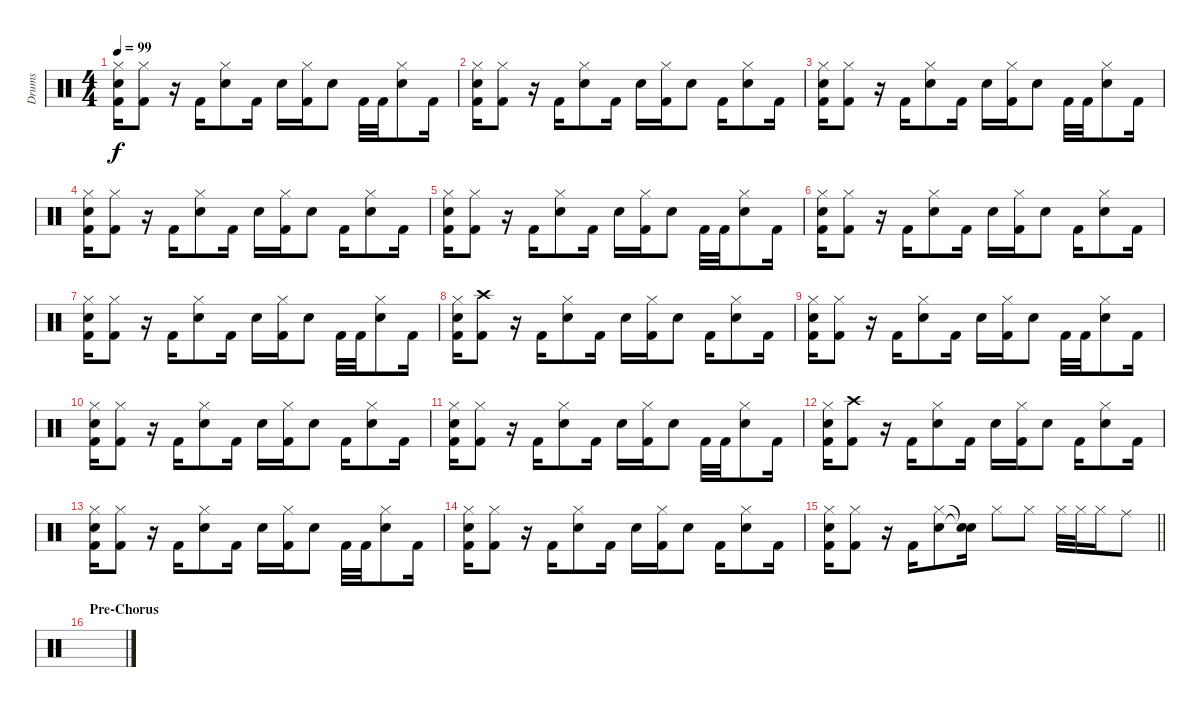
\track ("Drums" "Drums") {instrument percussion}
\staff {score}
\articulation defaults
\ts (4 4)
\tempo 99
\clef neutral
\ks c
("Hi-Hat (closed)" "Snare (hit) 2" "Kick (hit) 2").16{dy f} ("Hi-Hat (closed)" "Kick (hit) 2").8 r.16 "Kick (hit) 2".16 ("Hi-Hat (closed)" "Snare (hit) 2").8 "Kick (hit) 2".16 "Snare (hit) 2".16 ("Hi-Hat (closed)" "Kick (hit) 2").16 "Snare (hit) 2".8 "Kick (hit) 2".32 "Kick (hit) 2".32 ("Hi-Hat (closed)" "Snare (hit) 2").8 "Kick (hit) 2".16 |
("Hi-Hat (closed)" "Snare (hit) 2" "Kick (hit) 2").16 ("Hi-Hat (closed)" "Kick (hit) 2").8 r.16 "Kick (hit) 2".16 ("Hi-Hat (closed)" "Snare (hit) 2").8 "Kick (hit) 2".16 "Snare (hit) 2".16 ("Hi-Hat (closed)" "Kick (hit) 2").16 "Snare (hit) 2".8 "Kick (hit) 2".16 ("Hi-Hat (closed)" "Snare (hit) 2").8 "Kick (hit) 2".16 |
("Hi-Hat (closed)" "Snare (hit) 2" "Kick (hit) 2").16 ("Hi-Hat (closed)" "Kick (hit) 2").8 r.16 "Kick (hit) 2".16 ("Hi-Hat (closed)" "Snare (hit) 2").8 "Kick (hit) 2".16 "Snare (hit) 2".16 ("Hi-Hat (closed)" "Kick (hit) 2").16 "Snare (hit) 2".8 "Kick (hit) 2".32 "Kick (hit) 2".32 ("Hi-Hat (closed)" "Snare (hit) 2").8 "Kick (hit) 2".16 |
("Hi-Hat (closed)" "Snare (hit) 2" "Kick (hit) 2").16 ("Hi-Hat (closed)" "Kick (hit) 2").8 r.16 "Kick (hit) 2".16 ("Hi-Hat (closed)" "Snare (hit) 2").8 "Kick (hit) 2".16 "Snare (hit) 2".16 ("Hi-Hat (closed)" "Kick (hit) 2").16 "Snare (hit) 2".8 "Kick (hit) 2".16 ("Hi-Hat (closed)" "Snare (hit) 2").8 "Kick (hit) 2".16 |
("Hi-Hat (closed)" "Snare (hit) 2" "Kick (hit) 2").16 ("Hi-Hat (closed)" "Kick (hit) 2").8 r.16 "Kick (hit) 2".16 ("Hi-Hat (closed)" "Snare (hit) 2").8 "Kick (hit) 2".16 "Snare (hit) 2".16 ("Hi-Hat (closed)" "Kick (hit) 2").16 "Snare (hit) 2".8 "Kick (hit) 2".32 "Kick (hit) 2".32 ("Hi-Hat (closed)" "Snare (hit) 2").8 "Kick (hit) 2".16 |
("Hi-Hat (closed)" "Snare (hit) 2" "Kick (hit) 2").16 ("Hi-Hat (closed)" "Kick (hit) 2").8 r.16 "Kick (hit) 2".16 ("Hi-Hat (closed)" "Snare (hit) 2").8 "Kick (hit) 2".16 "Snare (hit) 2".16 ("Hi-Hat (closed)" "Kick (hit) 2").16 "Snare (hit) 2".8 "Kick (hit) 2".16 ("Hi-Hat (closed)" "Snare (hit) 2").8 "Kick (hit) 2".16 |
("Hi-Hat (closed)" "Snare (hit) 2" "Kick (hit) 2").16 ("Hi-Hat (closed)" "Kick (hit) 2").8 r.16 "Kick (hit) 2".16 ("Hi-Hat (closed)" "Snare (hit) 2").8 "Kick (hit) 2".16 "Snare (hit) 2".16 ("Hi-Hat (closed)" "Kick (hit) 2").16 "Snare (hit) 2".8 "Kick (hit) 2".32 "Kick (hit) 2".32 ("Hi-Hat (closed)" "Snare (hit) 2").8 "Kick (hit) 2".16 |
("Hi-Hat (closed)" "Snare (hit) 2" "Kick (hit) 2").16 ("Crash high (hit)" "Kick (hit) 2").8 r.16 "Kick (hit) 2".16 ("Hi-Hat (closed)" "Snare (hit) 2").8 "Kick (hit) 2".16 "Snare (hit) 2".16 ("Hi-Hat (closed)" "Kick (hit) 2").16 "Snare (hit) 2".8 "Kick (hit) 2".16 ("Hi-Hat (closed)" "Snare (hit) 2").8 "Kick (hit) 2".16 |
("Hi-Hat (closed)" "Snare (hit) 2" "Kick (hit) 2").16 ("Hi-Hat (closed)" "Kick (hit) 2").8 r.16 "Kick (hit) 2".16 ("Hi-Hat (closed)" "Snare (hit) 2").8 "Kick (hit) 2".16 "Snare (hit) 2".16 ("Hi-Hat (closed)" "Kick (hit) 2").16 "Snare (hit) 2".8 "Kick (hit) 2".32 "Kick (hit) 2".32 ("Hi-Hat (closed)" "Snare (hit) 2").8 "Kick (hit) 2".16 |
("Hi-Hat (closed)" "Snare (hit) 2" "Kick (hit) 2").16 ("Hi-Hat (closed)" "Kick (hit) 2").8 r.16 "Kick (hit) 2".16 ("Hi-Hat (closed)" "Snare (hit) 2").8 "Kick (hit) 2".16 "Snare (hit) 2".16 ("Hi-Hat (closed)" "Kick (hit) 2").16 "Snare (hit) 2".8 "Kick (hit) 2".16 ("Hi-Hat (closed)" "Snare (hit) 2").8 "Kick (hit) 2".16 |
("Hi-Hat (closed)" "Snare (hit) 2" "Kick (hit) 2").16 ("Hi-Hat (closed)" "Kick (hit) 2").8 r.16 "Kick (hit) 2".16 ("Hi-Hat (closed)" "Snare (hit) 2").8 "Kick (hit) 2".16 "Snare (hit) 2".16 ("Hi-Hat (closed)" "Kick (hit) 2").16 "Snare (hit) 2".8 "Kick (hit) 2".32 "Kick (hit) 2".32 ("Hi-Hat (closed)" "Snare (hit) 2").8 "Kick (hit) 2".16 |
("Hi-Hat (closed)" "Snare (hit) 2" "Kick (hit) 2").16 ("Crash high (hit)" "Kick (hit) 2").8 r.16 "Kick (hit) 2".16 ("Hi-Hat (closed)" "Snare (hit) 2").8 "Kick (hit) 2".16 "Snare (hit) 2".16 ("Hi-Hat (closed)" "Kick (hit) 2").16 "Snare (hit) 2".8 "Kick (hit) 2".16 ("Hi-Hat (closed)" "Snare (hit) 2").8 "Kick (hit) 2".16 |
("Hi-Hat (closed)" "Snare (hit) 2" "Kick (hit) 2").16 ("Hi-Hat (closed)" "Kick (hit) 2").8 r.16 "Kick (hit) 2".16 ("Hi-Hat (closed)" "Snare (hit) 2").8 "Kick (hit) 2".16 "Snare (hit) 2".16 ("Hi-Hat (closed)" "Kick (hit) 2").16 "Snare (hit) 2".8 "Kick (hit) 2".32 "Kick (hit) 2".32 ("Hi-Hat (closed)" "Snare (hit) 2").8 "Kick (hit) 2".16 |
("Hi-Hat (closed)" "Snare (hit) 2" "Kick (hit) 2").16 ("Hi-Hat (closed)" "Kick (hit) 2").8 r.16 "Kick (hit) 2".16 ("Hi-Hat (closed)" "Snare (hit) 2").8 "Kick (hit) 2".16 "Snare (hit) 2".16 ("Hi-Hat (closed)" "Kick (hit) 2").16 "Snare (hit) 2".8 "Kick (hit) 2".16 ("Hi-Hat (closed)" "Snare (hit) 2").8 "Kick (hit) 2".16 |
\barLineRight lightlight
("Hi-Hat (closed)" "Snare (hit) 2" "Kick (hit) 2").16 ("Hi-Hat (closed)" "Kick (hit) 2").8 r.16 "Kick (hit) 2".16 ("Hi-Hat (closed)" "Snare (hit) 2").8 ("Snare (hit)"{t} "Snare (hit)"{t}).16 "Hi-Hat (closed)".8 "Hi-Hat (closed)".8 "Hi-Hat (closed)".32 "Hi-Hat (closed)".32 "Hi-Hat (closed)".16 "Ride (middle)".8 |
\section ("" "Pre-Chorus")
